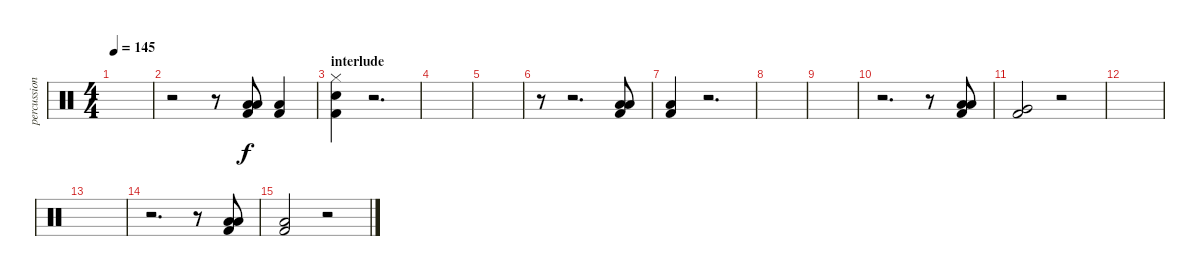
\track ("percussion" "percussion") {instrument percussion}
\staff {score}
\articulation defaults
\ts (4 4)
\tempo 145
\clef neutral
\ks c
|
r.2 r.8 ("Low Floor Tom (hit)" "Kick (hit) 2" "Low Tom (hit)").8 ("Low Floor Tom (hit)" "Kick (hit) 2").4 |
\section ("" "interlude")
("Kick (hit) 2" "Snare (hit) 2" "Hi-Hat (closed)").4 r.2{d} |
|
|
r.8 r.2{d} ("Low Floor Tom (hit)" "Kick (hit) 2" "Low Tom (hit)").8 |
("Low Floor Tom (hit)" "Kick (hit) 2").4 r.2{d} |
|
|
r.2{d} r.8 ("Low Floor Tom (hit)" "Kick (hit) 2" "Low Tom (hit)").8 |
("Very Low Tom (hit)" "Kick (hit) 2").2 r.2 |
|
|
r.2{d} r.8 ("Low Floor Tom (hit)" "Kick (hit) 2" "Low Tom (hit)").8 |
("Low Floor Tom (hit)" "Kick (hit) 2").2 r.2
